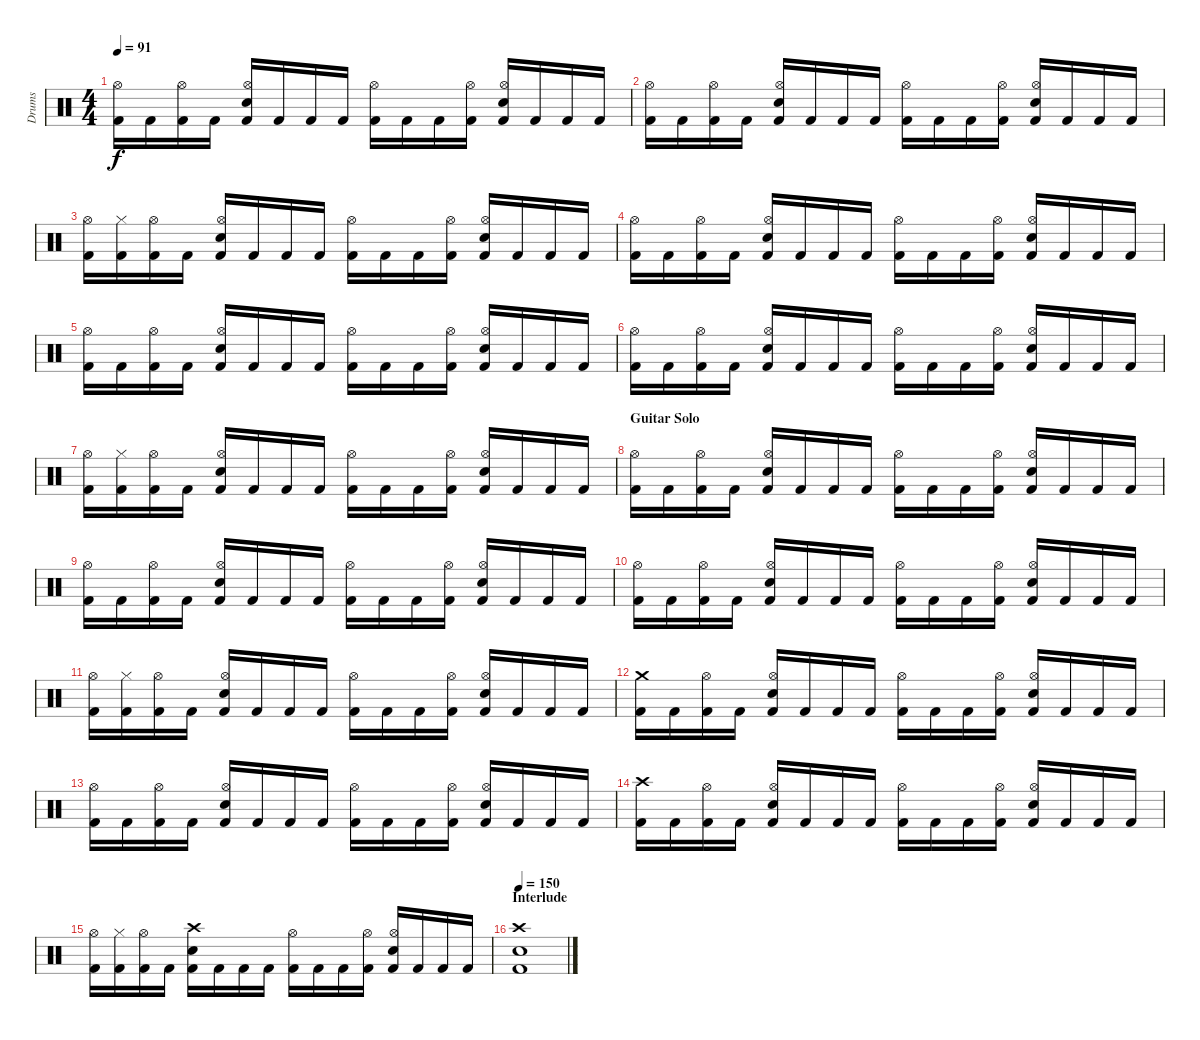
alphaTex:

\track ("Drums" "Drums") {instrument percussion}
\staff {score}
\articulation defaults
\ts (4 4)
\tempo 91
\clef neutral
\ks c
("Kick (hit) 2" "Hi-Hat (open)").16{dy f} "Kick (hit) 2".16 ("Kick (hit) 2" "Hi-Hat (open)").16 "Kick (hit) 2".16 ("Kick (hit) 2" "Snare (hit) 2" "Hi-Hat (open)").16 "Kick (hit) 2".16 "Kick (hit) 2".16 "Kick (hit) 2".16 ("Kick (hit) 2" "Hi-Hat (open)").16 "Kick (hit) 2".16 "Kick (hit) 2".16 ("Kick (hit) 2" "Hi-Hat (open)").16 ("Kick (hit) 2" "Snare (hit) 2" "Hi-Hat (open)").16 "Kick (hit) 2".16 "Kick (hit) 2".16 "Kick (hit) 2".16 |
("Kick (hit) 2" "Hi-Hat (open)").16 "Kick (hit) 2".16 ("Kick (hit) 2" "Hi-Hat (open)").16 "Kick (hit) 2".16 ("Kick (hit) 2" "Snare (hit) 2" "Hi-Hat (open)").16 "Kick (hit) 2".16 "Kick (hit) 2".16 "Kick (hit) 2".16 ("Kick (hit) 2" "Hi-Hat (open)").16 "Kick (hit) 2".16 "Kick (hit) 2".16 ("Kick (hit) 2" "Hi-Hat (open)").16 ("Kick (hit) 2" "Snare (hit) 2" "Hi-Hat (open)").16 "Kick (hit) 2".16 "Kick (hit) 2".16 "Kick (hit) 2".16 |
("Kick (hit) 2" "Hi-Hat (open)").16 ("Kick (hit) 2" "Hi-Hat (closed)").16 ("Kick (hit) 2" "Hi-Hat (open)").16 "Kick (hit) 2".16 ("Kick (hit) 2" "Snare (hit) 2" "Hi-Hat (open)").16 "Kick (hit) 2".16 "Kick (hit) 2".16 "Kick (hit) 2".16 ("Kick (hit) 2" "Hi-Hat (open)").16 "Kick (hit) 2".16 "Kick (hit) 2".16 ("Kick (hit) 2" "Hi-Hat (open)").16 ("Kick (hit) 2" "Snare (hit) 2" "Hi-Hat (open)").16 "Kick (hit) 2".16 "Kick (hit) 2".16 "Kick (hit) 2".16 |
("Kick (hit) 2" "Hi-Hat (open)").16 "Kick (hit) 2".16 ("Kick (hit) 2" "Hi-Hat (open)").16 "Kick (hit) 2".16 ("Kick (hit) 2" "Snare (hit) 2" "Hi-Hat (open)").16 "Kick (hit) 2".16 "Kick (hit) 2".16 "Kick (hit) 2".16 ("Kick (hit) 2" "Hi-Hat (open)").16 "Kick (hit) 2".16 "Kick (hit) 2".16 ("Kick (hit) 2" "Hi-Hat (open)").16 ("Kick (hit) 2" "Snare (hit) 2" "Hi-Hat (open)").16 "Kick (hit) 2".16 "Kick (hit) 2".16 "Kick (hit) 2".16 |
("Kick (hit) 2" "Hi-Hat (open)").16 "Kick (hit) 2".16 ("Kick (hit) 2" "Hi-Hat (open)").16 "Kick (hit) 2".16 ("Kick (hit) 2" "Snare (hit) 2" "Hi-Hat (open)").16 "Kick (hit) 2".16 "Kick (hit) 2".16 "Kick (hit) 2".16 ("Kick (hit) 2" "Hi-Hat (open)").16 "Kick (hit) 2".16 "Kick (hit) 2".16 ("Kick (hit) 2" "Hi-Hat (open)").16 ("Kick (hit) 2" "Snare (hit) 2" "Hi-Hat (open)").16 "Kick (hit) 2".16 "Kick (hit) 2".16 "Kick (hit) 2".16 |
("Kick (hit) 2" "Hi-Hat (open)").16 "Kick (hit) 2".16 ("Kick (hit) 2" "Hi-Hat (open)").16 "Kick (hit) 2".16 ("Kick (hit) 2" "Snare (hit) 2" "Hi-Hat (open)").16 "Kick (hit) 2".16 "Kick (hit) 2".16 "Kick (hit) 2".16 ("Kick (hit) 2" "Hi-Hat (open)").16 "Kick (hit) 2".16 "Kick (hit) 2".16 ("Kick (hit) 2" "Hi-Hat (open)").16 ("Kick (hit) 2" "Snare (hit) 2" "Hi-Hat (open)").16 "Kick (hit) 2".16 "Kick (hit) 2".16 "Kick (hit) 2".16 |
("Kick (hit) 2" "Hi-Hat (open)").16 ("Kick (hit) 2" "Hi-Hat (closed)").16 ("Kick (hit) 2" "Hi-Hat (open)").16 "Kick (hit) 2".16 ("Kick (hit) 2" "Snare (hit) 2" "Hi-Hat (open)").16 "Kick (hit) 2".16 "Kick (hit) 2".16 "Kick (hit) 2".16 ("Kick (hit) 2" "Hi-Hat (open)").16 "Kick (hit) 2".16 "Kick (hit) 2".16 ("Kick (hit) 2" "Hi-Hat (open)").16 ("Kick (hit) 2" "Snare (hit) 2" "Hi-Hat (open)").16 "Kick (hit) 2".16 "Kick (hit) 2".16 "Kick (hit) 2".16 |
\section ("" "Guitar Solo")
("Kick (hit) 2" "Hi-Hat (open)").16 "Kick (hit) 2".16 ("Kick (hit) 2" "Hi-Hat (open)").16 "Kick (hit) 2".16 ("Kick (hit) 2" "Snare (hit) 2" "Hi-Hat (open)").16 "Kick (hit) 2".16 "Kick (hit) 2".16 "Kick (hit) 2".16 ("Kick (hit) 2" "Hi-Hat (open)").16 "Kick (hit) 2".16 "Kick (hit) 2".16 ("Kick (hit) 2" "Hi-Hat (open)").16 ("Kick (hit) 2" "Snare (hit) 2" "Hi-Hat (open)").16 "Kick (hit) 2".16 "Kick (hit) 2".16 "Kick (hit) 2".16 |
("Kick (hit) 2" "Hi-Hat (open)").16 "Kick (hit) 2".16 ("Kick (hit) 2" "Hi-Hat (open)").16 "Kick (hit) 2".16 ("Kick (hit) 2" "Snare (hit) 2" "Hi-Hat (open)").16 "Kick (hit) 2".16 "Kick (hit) 2".16 "Kick (hit) 2".16 ("Kick (hit) 2" "Hi-Hat (open)").16 "Kick (hit) 2".16 "Kick (hit) 2".16 ("Kick (hit) 2" "Hi-Hat (open)").16 ("Kick (hit) 2" "Snare (hit) 2" "Hi-Hat (open)").16 "Kick (hit) 2".16 "Kick (hit) 2".16 "Kick (hit) 2".16 |
("Kick (hit) 2" "Hi-Hat (open)").16 "Kick (hit) 2".16 ("Kick (hit) 2" "Hi-Hat (open)").16 "Kick (hit) 2".16 ("Kick (hit) 2" "Snare (hit) 2" "Hi-Hat (open)").16 "Kick (hit) 2".16 "Kick (hit) 2".16 "Kick (hit) 2".16 ("Kick (hit) 2" "Hi-Hat (open)").16 "Kick (hit) 2".16 "Kick (hit) 2".16 ("Kick (hit) 2" "Hi-Hat (open)").16 ("Kick (hit) 2" "Snare (hit) 2" "Hi-Hat (open)").16 "Kick (hit) 2".16 "Kick (hit) 2".16 "Kick (hit) 2".16 |
("Kick (hit) 2" "Hi-Hat (open)").16 ("Kick (hit) 2" "Hi-Hat (closed)").16 ("Kick (hit) 2" "Hi-Hat (open)").16 "Kick (hit) 2".16 ("Kick (hit) 2" "Snare (hit) 2" "Hi-Hat (open)").16 "Kick (hit) 2".16 "Kick (hit) 2".16 "Kick (hit) 2".16 ("Kick (hit) 2" "Hi-Hat (open)").16 "Kick (hit) 2".16 "Kick (hit) 2".16 ("Kick (hit) 2" "Hi-Hat (open)").16 ("Kick (hit) 2" "Snare (hit) 2" "Hi-Hat (open)").16 "Kick (hit) 2".16 "Kick (hit) 2".16 "Kick (hit) 2".16 |
("Kick (hit) 2" "Crash medium (hit)").16 "Kick (hit) 2".16 ("Kick (hit) 2" "Hi-Hat (open)").16 "Kick (hit) 2".16 ("Kick (hit) 2" "Snare (hit) 2" "Hi-Hat (open)").16 "Kick (hit) 2".16 "Kick (hit) 2".16 "Kick (hit) 2".16 ("Kick (hit) 2" "Hi-Hat (open)").16 "Kick (hit) 2".16 "Kick (hit) 2".16 ("Kick (hit) 2" "Hi-Hat (open)").16 ("Kick (hit) 2" "Snare (hit) 2" "Hi-Hat (open)").16 "Kick (hit) 2".16 "Kick (hit) 2".16 "Kick (hit) 2".16 |
("Kick (hit) 2" "Hi-Hat (open)").16 "Kick (hit) 2".16 ("Kick (hit) 2" "Hi-Hat (open)").16 "Kick (hit) 2".16 ("Kick (hit) 2" "Snare (hit) 2" "Hi-Hat (open)").16 "Kick (hit) 2".16 "Kick (hit) 2".16 "Kick (hit) 2".16 ("Kick (hit) 2" "Hi-Hat (open)").16 "Kick (hit) 2".16 "Kick (hit) 2".16 ("Kick (hit) 2" "Hi-Hat (open)").16 ("Kick (hit) 2" "Snare (hit) 2" "Hi-Hat (open)").16 "Kick (hit) 2".16 "Kick (hit) 2".16 "Kick (hit) 2".16 |
("Kick (hit) 2" "Crash high (hit)").16 "Kick (hit) 2".16 ("Kick (hit) 2" "Hi-Hat (open)").16 "Kick (hit) 2".16 ("Kick (hit) 2" "Snare (hit) 2" "Hi-Hat (open)").16 "Kick (hit) 2".16 "Kick (hit) 2".16 "Kick (hit) 2".16 ("Kick (hit) 2" "Hi-Hat (open)").16 "Kick (hit) 2".16 "Kick (hit) 2".16 ("Kick (hit) 2" "Hi-Hat (open)").16 ("Kick (hit) 2" "Snare (hit) 2" "Hi-Hat (open)").16 "Kick (hit) 2".16 "Kick (hit) 2".16 "Kick (hit) 2".16 |
("Kick (hit) 2" "Hi-Hat (open)").16 ("Kick (hit) 2" "Hi-Hat (closed)").16 ("Kick (hit) 2" "Hi-Hat (open)").16 "Kick (hit) 2".16 ("Kick (hit) 2" "Snare (hit) 2" "Crash high (hit)").16 "Kick (hit) 2".16 "Kick (hit) 2".16 "Kick (hit) 2".16 ("Kick (hit) 2" "Hi-Hat (open)").16 "Kick (hit) 2".16 "Kick (hit) 2".16 ("Kick (hit) 2" "Hi-Hat (open)").16 ("Kick (hit) 2" "Snare (hit) 2" "Hi-Hat (open)").16 "Kick (hit) 2".16 "Kick (hit) 2".16 "Kick (hit) 2".16 |
\section ("" "Interlude")
\tempo 150
("Kick (hit) 2" "Snare (hit) 2" "Crash high (hit)").1
